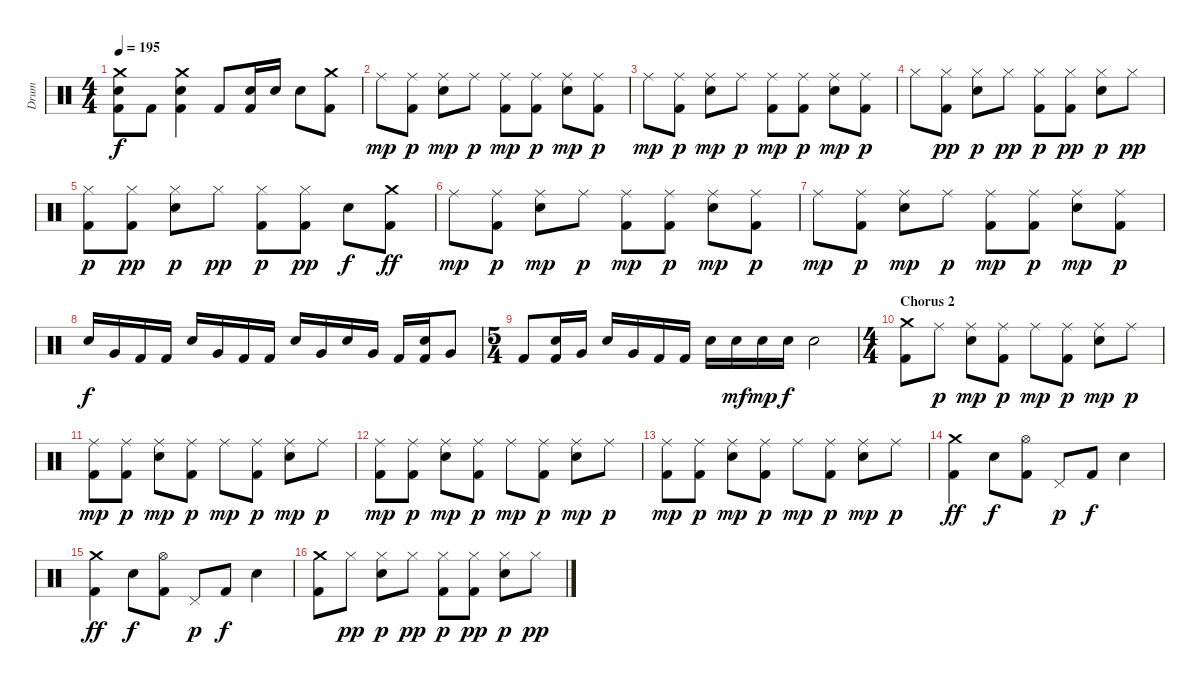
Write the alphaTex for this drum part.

\track ("Drum" "Drum") {instrument percussion}
\staff {score}
\articulation defaults
\ts (4 4)
\tempo 195
\clef neutral
\ks c
("Crash medium (hit)" "Electric Snare (hit)" "Kick (hit) 2").8{dy f} "Kick (hit) 2".8 ("Crash medium (hit)" "Electric Snare (hit)" "Kick (hit) 2").4 "Kick (hit) 2".8 ("Electric Snare (hit)" "Kick (hit) 2").16 "Electric Snare (hit)".16 "Electric Snare (hit)".8 ("Crash medium (hit)" "Kick (hit) 2").8 |
"Ride (middle)".8{dy mp} ("Ride (middle)" "Kick (hit) 2").8{dy p} ("Ride (middle)" "Electric Snare (hit)").8{dy mp} "Ride (middle)".8{dy p} ("Ride (middle)" "Kick (hit) 2").8{dy mp} ("Ride (middle)" "Kick (hit) 2").8{dy p} ("Ride (middle)" "Electric Snare (hit)").8{dy mp} ("Ride (middle)" "Kick (hit) 2").8{dy p} |
"Ride (middle)".8{dy mp} ("Ride (middle)" "Kick (hit) 2").8{dy p} ("Ride (middle)" "Electric Snare (hit)").8{dy mp} "Ride (middle)".8{dy p} ("Ride (middle)" "Kick (hit) 2").8{dy mp} ("Ride (middle)" "Kick (hit) 2").8{dy p} ("Ride (middle)" "Electric Snare (hit)").8{dy mp} ("Ride (middle)" "Kick (hit) 2").8{dy p} |
"Hi-Hat (closed)".8 ("Hi-Hat (closed)" "Kick (hit) 2").8{dy pp} ("Hi-Hat (closed)" "Electric Snare (hit)").8{dy p} "Hi-Hat (closed)".8{dy pp} ("Hi-Hat (closed)" "Kick (hit) 2").8{dy p} ("Hi-Hat (closed)" "Kick (hit) 2").8{dy pp} ("Hi-Hat (closed)" "Electric Snare (hit)").8{dy p} "Hi-Hat (closed)".8{dy pp} |
("Hi-Hat (closed)" "Kick (hit) 2").8{dy p} ("Hi-Hat (closed)" "Kick (hit) 2").8{dy pp} ("Hi-Hat (closed)" "Electric Snare (hit)").8{dy p} "Hi-Hat (closed)".8{dy pp} ("Hi-Hat (closed)" "Kick (hit) 2").8{dy p} ("Hi-Hat (closed)" "Kick (hit) 2").8{dy pp} "Electric Snare (hit)".8{dy f} ("Crash medium (hit)" "Kick (hit) 2").8{dy ff} |
"Ride (middle)".8{dy mp} ("Ride (middle)" "Kick (hit) 2").8{dy p} ("Ride (middle)" "Electric Snare (hit)").8{dy mp} "Ride (middle)".8{dy p} ("Ride (middle)" "Kick (hit) 2").8{dy mp} ("Ride (middle)" "Kick (hit) 2").8{dy p} ("Ride (middle)" "Electric Snare (hit)").8{dy mp} ("Ride (middle)" "Kick (hit) 2").8{dy p} |
"Ride (middle)".8{dy mp} ("Ride (middle)" "Kick (hit) 2").8{dy p} ("Ride (middle)" "Electric Snare (hit)").8{dy mp} "Ride (middle)".8{dy p} ("Ride (middle)" "Kick (hit) 2").8{dy mp} ("Ride (middle)" "Kick (hit) 2").8{dy p} ("Ride (middle)" "Electric Snare (hit)").8{dy mp} ("Ride (middle)" "Kick (hit) 2").8{dy p} |
"Electric Snare (hit)".16{dy f} "Very Low Tom (hit)".16 "Kick (hit) 2".16 "Kick (hit) 2".16 "Electric Snare (hit)".16 "Very Low Tom (hit)".16 "Kick (hit) 2".16 "Kick (hit) 2".16 "Electric Snare (hit)".16 "Very Low Tom (hit)".16 "Electric Snare (hit)".16 "Very Low Tom (hit)".16 "Kick (hit) 2".16 ("Electric Snare (hit)" "Kick (hit) 2").16 "Very Low Tom (hit)".8 |
\ts (5 4)
"Kick (hit) 2".8 ("Electric Snare (hit)" "Kick (hit) 2").16 "Very Low Tom (hit)".16 "Electric Snare (hit)".16 "Very Low Tom (hit)".16 "Kick (hit) 2".16 "Kick (hit) 2".16 "Electric Snare (hit)".16 "Electric Snare (hit)".16{dy mf} "Electric Snare (hit)".16{dy mp} "Electric Snare (hit)".16{dy f} "Electric Snare (hit)".2 |
\ts (4 4)
\section ("" "Chorus 2")
("Crash medium (hit)" "Kick (hit) 2").8 "Ride (middle)".8{dy p} ("Ride (middle)" "Electric Snare (hit)").8{dy mp} ("Ride (middle)" "Kick (hit) 2").8{dy p} "Ride (middle)".8{dy mp} ("Ride (middle)" "Kick (hit) 2").8{dy p} ("Ride (middle)" "Electric Snare (hit)").8{dy mp} "Ride (middle)".8{dy p} |
("Ride (middle)" "Kick (hit) 2").8{dy mp} ("Ride (middle)" "Kick (hit) 2").8{dy p} ("Ride (middle)" "Electric Snare (hit)").8{dy mp} ("Ride (middle)" "Kick (hit) 2").8{dy p} "Ride (middle)".8{dy mp} ("Ride (middle)" "Kick (hit) 2").8{dy p} ("Ride (middle)" "Electric Snare (hit)").8{dy mp} "Ride (middle)".8{dy p} |
("Ride (middle)" "Kick (hit) 2").8{dy mp} ("Ride (middle)" "Kick (hit) 2").8{dy p} ("Ride (middle)" "Electric Snare (hit)").8{dy mp} ("Ride (middle)" "Kick (hit) 2").8{dy p} "Ride (middle)".8{dy mp} ("Ride (middle)" "Kick (hit) 2").8{dy p} ("Ride (middle)" "Electric Snare (hit)").8{dy mp} "Ride (middle)".8{dy p} |
("Ride (middle)" "Kick (hit) 2").8{dy mp} ("Ride (middle)" "Kick (hit) 2").8{dy p} ("Ride (middle)" "Electric Snare (hit)").8{dy mp} ("Ride (middle)" "Kick (hit) 2").8{dy p} "Ride (middle)".8{dy mp} ("Ride (middle)" "Kick (hit) 2").8{dy p} ("Ride (middle)" "Electric Snare (hit)").8{dy mp} "Ride (middle)".8{dy p} |
("Crash medium (hit)" "Kick (hit) 2").4{dy ff} "Electric Snare (hit)".8{dy f} ("Hi-Hat (open)" "Kick (hit) 2").8 "Pedal Hi-Hat (hit)".8{dy p} "Kick (hit) 2".8{dy f} "Electric Snare (hit)".4 |
("Crash medium (hit)" "Kick (hit) 2").4{dy ff} "Electric Snare (hit)".8{dy f} ("Hi-Hat (open)" "Kick (hit) 2").8 "Pedal Hi-Hat (hit)".8{dy p} "Kick (hit) 2".8{dy f} "Electric Snare (hit)".4 |
("Crash medium (hit)" "Kick (hit) 2").8 "Hi-Hat (closed)".8{dy pp} ("Hi-Hat (closed)" "Electric Snare (hit)").8{dy p} "Hi-Hat (closed)".8{dy pp} ("Hi-Hat (closed)" "Kick (hit) 2").8{dy p} ("Hi-Hat (closed)" "Kick (hit) 2").8{dy pp} ("Hi-Hat (closed)" "Electric Snare (hit)").8{dy p} "Hi-Hat (closed)".8{dy pp}
